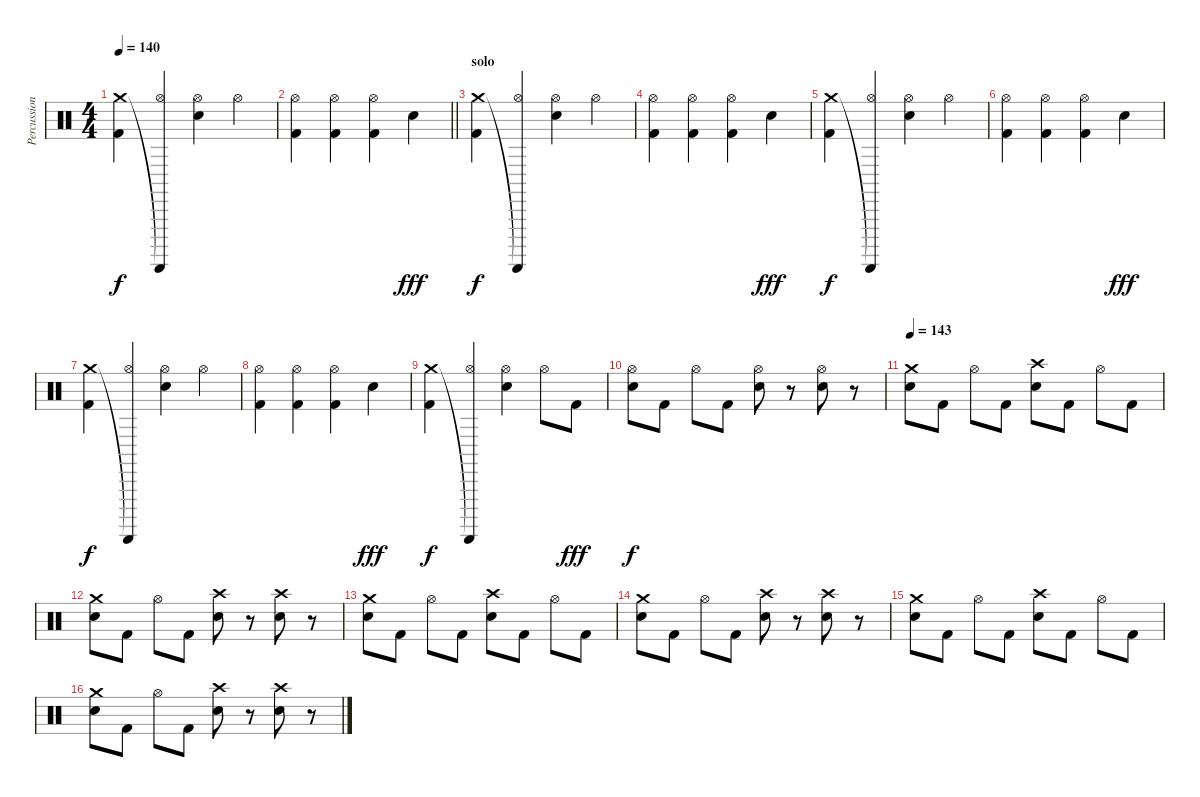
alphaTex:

\track ("Percussion" "Percussion") {instrument percussion}
\staff {score}
\articulation defaults
\ts (4 4)
\tempo 140
\clef neutral
\ks c
("Crash medium (hit)" "Kick (hit) 2").4{dy f} ("Guiro (scrap-return)"{t} "Hi-Hat (open)").4 ("Hi-Hat (open)" "Electric Snare (hit)").4 "Hi-Hat (open)".4 |
\barLineRight lightlight
("Hi-Hat (open)" "Kick (hit) 2").4 ("Hi-Hat (open)" "Kick (hit) 2").4 ("Hi-Hat (open)" "Kick (hit) 2").4 "Electric Snare (hit)".4{dy fff} |
\section ("" "solo")
("Crash medium (hit)" "Kick (hit) 2").4{dy f} ("Guiro (scrap-return)"{t} "Hi-Hat (open)").4 ("Hi-Hat (open)" "Electric Snare (hit)").4 "Hi-Hat (open)".4 |
("Hi-Hat (open)" "Kick (hit) 2").4 ("Hi-Hat (open)" "Kick (hit) 2").4 ("Hi-Hat (open)" "Kick (hit) 2").4 "Electric Snare (hit)".4{dy fff} |
("Crash medium (hit)" "Kick (hit) 2").4{dy f} ("Guiro (scrap-return)"{t} "Hi-Hat (open)").4 ("Hi-Hat (open)" "Electric Snare (hit)").4 "Hi-Hat (open)".4 |
("Hi-Hat (open)" "Kick (hit) 2").4 ("Hi-Hat (open)" "Kick (hit) 2").4 ("Hi-Hat (open)" "Kick (hit) 2").4 "Electric Snare (hit)".4{dy fff} |
("Crash medium (hit)" "Kick (hit) 2").4{dy f} ("Guiro (scrap-return)"{t} "Hi-Hat (open)").4 ("Hi-Hat (open)" "Electric Snare (hit)").4 "Hi-Hat (open)".4 |
("Hi-Hat (open)" "Kick (hit) 2").4 ("Hi-Hat (open)" "Kick (hit) 2").4 ("Hi-Hat (open)" "Kick (hit) 2").4 "Electric Snare (hit)".4{dy fff} |
("Crash medium (hit)" "Kick (hit) 2").4{dy f} ("Guiro (scrap-return)"{t} "Hi-Hat (open)").4 ("Hi-Hat (open)" "Electric Snare (hit)").4 "Hi-Hat (open)".8 "Kick (hit) 2".8{dy fff} |
("Hi-Hat (open)" "Electric Snare (hit)").8{dy f} "Kick (hit) 2".8 "Hi-Hat (open)".8 "Kick (hit) 2".8 ("Hi-Hat (open)" "Electric Snare (hit)").8 r.8 ("Hi-Hat (open)" "Electric Snare (hit)").8 r.8 |
\tempo 143
("Crash medium (hit)" "Electric Snare (hit)").8 "Kick (hit) 2".8 "Hi-Hat (open)".8 "Kick (hit) 2".8 ("Crash high (hit)" "Electric Snare (hit)").8 "Kick (hit) 2".8 "Hi-Hat (open)".8 "Kick (hit) 2".8 |
("Crash medium (hit)" "Electric Snare (hit)").8 "Kick (hit) 2".8 "Hi-Hat (open)".8 "Kick (hit) 2".8 ("Crash high (hit)" "Electric Snare (hit)").8 r.8 ("Crash high (hit)" "Electric Snare (hit)").8 r.8 |
("Crash medium (hit)" "Electric Snare (hit)").8 "Kick (hit) 2".8 "Hi-Hat (open)".8 "Kick (hit) 2".8 ("Crash high (hit)" "Electric Snare (hit)").8 "Kick (hit) 2".8 "Hi-Hat (open)".8 "Kick (hit) 2".8 |
("Crash medium (hit)" "Electric Snare (hit)").8 "Kick (hit) 2".8 "Hi-Hat (open)".8 "Kick (hit) 2".8 ("Crash high (hit)" "Electric Snare (hit)").8 r.8 ("Crash high (hit)" "Electric Snare (hit)").8 r.8 |
("Crash medium (hit)" "Electric Snare (hit)").8 "Kick (hit) 2".8 "Hi-Hat (open)".8 "Kick (hit) 2".8 ("Crash high (hit)" "Electric Snare (hit)").8 "Kick (hit) 2".8 "Hi-Hat (open)".8 "Kick (hit) 2".8 |
("Crash medium (hit)" "Electric Snare (hit)").8 "Kick (hit) 2".8 "Hi-Hat (open)".8 "Kick (hit) 2".8 ("Crash high (hit)" "Electric Snare (hit)").8 r.8 ("Crash high (hit)" "Electric Snare (hit)").8 r.8
